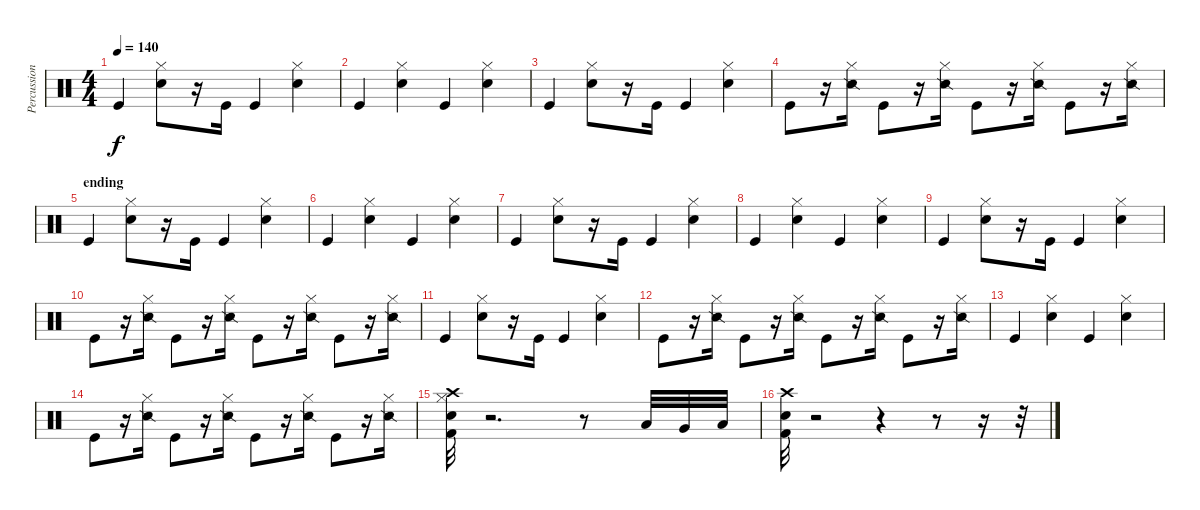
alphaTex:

\track ("Percussions" "Percussion") {instrument percussion}
\staff {score}
\articulation defaults
\ts (4 4)
\tempo 140
\clef neutral
\ks c "Kick (hit)".4{dy f}
("Hi-Hat (closed)" "Electric Snare (hit)").8 r.16 "Kick (hit)".16 "Kick (hit)".4 ("Hi-Hat (closed)" "Electric Snare (hit)").4 |
"Kick (hit)".4 ("Hi-Hat (closed)" "Electric Snare (hit)").4 "Kick (hit)".4 ("Hi-Hat (closed)" "Electric Snare (hit)").4 |
"Kick (hit)".4 ("Hi-Hat (closed)" "Electric Snare (hit)").8 r.16 "Kick (hit)".16 "Kick (hit)".4 ("Hi-Hat (closed)" "Electric Snare (hit)").4 |
"Kick (hit)".8 r.16 ("Hi-Hat (closed)" "Snare (side stick) 2").16 "Kick (hit)".8 r.16 ("Hi-Hat (closed)" "Snare (side stick) 2").16 "Kick (hit)".8 r.16 ("Hi-Hat (closed)" "Snare (side stick) 2").16 "Kick (hit)".8 r.16 ("Hi-Hat (closed)" "Snare (side stick) 2").16 |
\section ("" "ending")
"Kick (hit)".4 ("Hi-Hat (closed)" "Electric Snare (hit)").8 r.16 "Kick (hit)".16 "Kick (hit)".4 ("Hi-Hat (closed)" "Electric Snare (hit)").4 |
"Kick (hit)".4 ("Hi-Hat (closed)" "Electric Snare (hit)").4 "Kick (hit)".4 ("Hi-Hat (closed)" "Electric Snare (hit)").4 |
"Kick (hit)".4 ("Hi-Hat (closed)" "Electric Snare (hit)").8 r.16 "Kick (hit)".16 "Kick (hit)".4 ("Hi-Hat (closed)" "Electric Snare (hit)").4 |
"Kick (hit)".4 ("Hi-Hat (closed)" "Electric Snare (hit)").4 "Kick (hit)".4 ("Hi-Hat (closed)" "Electric Snare (hit)").4 |
"Kick (hit)".4 ("Hi-Hat (closed)" "Electric Snare (hit)").8 r.16 "Kick (hit)".16 "Kick (hit)".4 ("Hi-Hat (closed)" "Electric Snare (hit)").4 |
"Kick (hit)".8 r.16 ("Hi-Hat (closed)" "Snare (side stick) 2").16 "Kick (hit)".8 r.16 ("Hi-Hat (closed)" "Snare (side stick) 2").16 "Kick (hit)".8 r.16 ("Hi-Hat (closed)" "Snare (side stick) 2").16 "Kick (hit)".8 r.16 ("Hi-Hat (closed)" "Snare (side stick) 2").16 |
"Kick (hit)".4 ("Hi-Hat (closed)" "Electric Snare (hit)").8 r.16 "Kick (hit)".16 "Kick (hit)".4 ("Hi-Hat (closed)" "Electric Snare (hit)").4 |
"Kick (hit)".8 r.16 ("Hi-Hat (closed)" "Snare (side stick) 2").16 "Kick (hit)".8 r.16 ("Hi-Hat (closed)" "Snare (side stick) 2").16 "Kick (hit)".8 r.16 ("Hi-Hat (closed)" "Snare (side stick) 2").16 "Kick (hit)".8 r.16 ("Hi-Hat (closed)" "Snare (side stick) 2").16 |
"Kick (hit)".4 ("Hi-Hat (closed)" "Electric Snare (hit)").4 "Kick (hit)".4 ("Hi-Hat (closed)" "Electric Snare (hit)").4 |
"Kick (hit)".8 r.16 ("Hi-Hat (closed)" "Snare (side stick) 2").16 "Kick (hit)".8 r.16 ("Hi-Hat (closed)" "Snare (side stick) 2").16 "Kick (hit)".8 r.16 ("Hi-Hat (closed)" "Snare (side stick) 2").16 "Kick (hit)".8 r.16 ("Hi-Hat (closed)" "Snare (side stick) 2").16 |
("Snare (hit) 2" "Kick (hit) 2" "Hi-Hat (closed)" "Crash high (hit)").32 r.2{d} r.8 "Low Tom (hit)".32 "Very Low Tom (hit)".32 "Low Floor Tom (hit)".32 |
("Kick (hit) 2" "Snare (hit) 2" "Crash high (hit)").32 r.2 r.4 r.8 r.16 r.32
